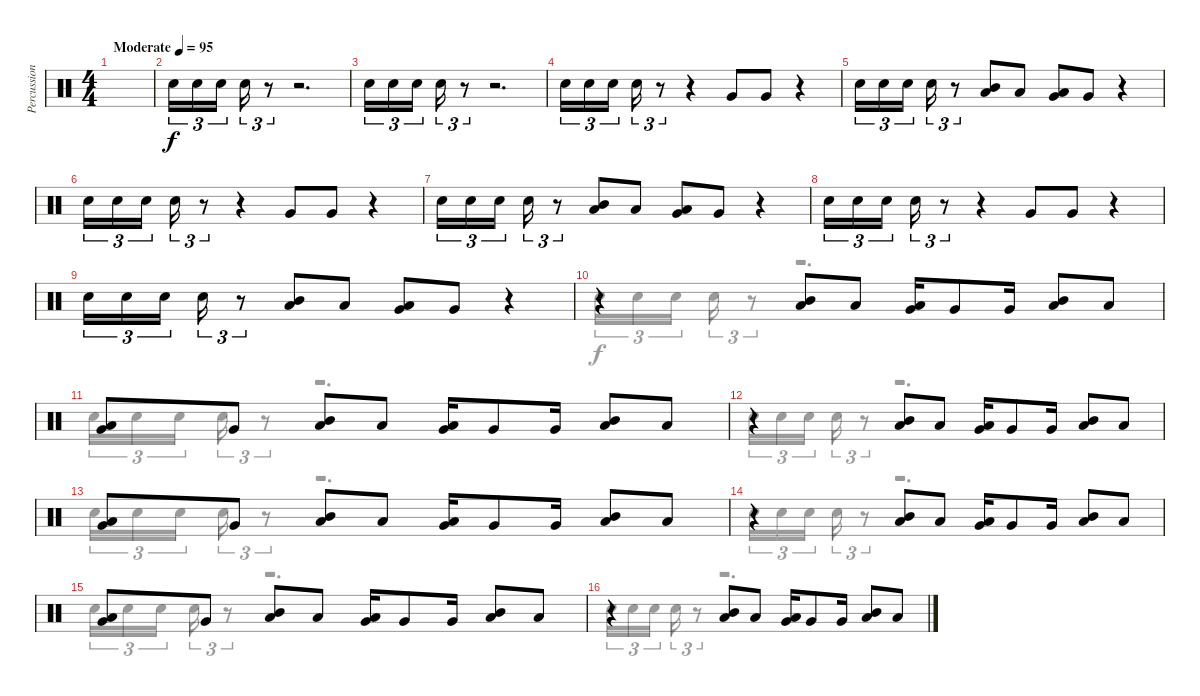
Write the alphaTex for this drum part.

\track ("Percussion" "Percussion") {instrument percussion}
\staff {score}
\articulation defaults
\voice
\ts (4 4)
\tempo (95 "Moderate")
\clef neutral
\ks c
|
"Snare (hit) 2".16{tu (3 2)} "Snare (hit) 2".16{tu (3 2)} "Snare (hit) 2".16{tu (3 2) beam splitsecondary} "Snare (hit) 2".16{tu (3 2)} r.8{tu (3 2)} r.2{d} |
"Snare (hit) 2".16{tu (3 2)} "Snare (hit) 2".16{tu (3 2)} "Snare (hit) 2".16{tu (3 2) beam splitsecondary} "Snare (hit) 2".16{tu (3 2)} r.8{tu (3 2)} r.2{d} |
"Snare (hit) 2".16{tu (3 2)} "Snare (hit) 2".16{tu (3 2)} "Snare (hit) 2".16{tu (3 2) beam splitsecondary} "Snare (hit) 2".16{tu (3 2)} r.8{tu (3 2)} r.4 "Very Low Tom (hit)".8 "Very Low Tom (hit)".8 r.4 |
"Snare (hit) 2".16{tu (3 2)} "Snare (hit) 2".16{tu (3 2)} "Snare (hit) 2".16{tu (3 2) beam splitsecondary} "Snare (hit) 2".16{tu (3 2)} r.8{tu (3 2)} ("Mid Tom (hit)" "Low Tom (hit)").8 "Low Tom (hit)".8 ("Low Tom (hit)" "Very Low Tom (hit)").8 "Very Low Tom (hit)".8 r.4 |
"Snare (hit) 2".16{tu (3 2)} "Snare (hit) 2".16{tu (3 2)} "Snare (hit) 2".16{tu (3 2) beam splitsecondary} "Snare (hit) 2".16{tu (3 2)} r.8{tu (3 2)} r.4 "Very Low Tom (hit)".8 "Very Low Tom (hit)".8 r.4 |
"Snare (hit) 2".16{tu (3 2)} "Snare (hit) 2".16{tu (3 2)} "Snare (hit) 2".16{tu (3 2) beam splitsecondary} "Snare (hit) 2".16{tu (3 2)} r.8{tu (3 2)} ("Mid Tom (hit)" "Low Tom (hit)").8 "Low Tom (hit)".8 ("Low Tom (hit)" "Very Low Tom (hit)").8 "Very Low Tom (hit)".8 r.4 |
"Snare (hit) 2".16{tu (3 2)} "Snare (hit) 2".16{tu (3 2)} "Snare (hit) 2".16{tu (3 2) beam splitsecondary} "Snare (hit) 2".16{tu (3 2)} r.8{tu (3 2)} r.4 "Very Low Tom (hit)".8 "Very Low Tom (hit)".8 r.4 |
"Snare (hit) 2".16{tu (3 2)} "Snare (hit) 2".16{tu (3 2)} "Snare (hit) 2".16{tu (3 2) beam splitsecondary} "Snare (hit) 2".16{tu (3 2)} r.8{tu (3 2)} ("Mid Tom (hit)" "Low Tom (hit)").8 "Low Tom (hit)".8 ("Low Tom (hit)" "Very Low Tom (hit)").8 "Very Low Tom (hit)".8 r.4 |
r.4 ("Mid Tom (hit)" "Low Tom (hit)").8 "Low Tom (hit)".8 ("Low Tom (hit)" "Very Low Tom (hit)").16 "Very Low Tom (hit)".8 "Very Low Tom (hit)".16 ("Mid Tom (hit)" "Low Tom (hit)").8 "Low Tom (hit)".8 |
("Low Tom (hit)" "Very Low Tom (hit)").8 "Very Low Tom (hit)".8 ("Mid Tom (hit)" "Low Tom (hit)").8 "Low Tom (hit)".8 ("Low Tom (hit)" "Very Low Tom (hit)").16 "Very Low Tom (hit)".8 "Very Low Tom (hit)".16 ("Mid Tom (hit)" "Low Tom (hit)").8 "Low Tom (hit)".8 |
r.4 ("Mid Tom (hit)" "Low Tom (hit)").8 "Low Tom (hit)".8 ("Low Tom (hit)" "Very Low Tom (hit)").16 "Very Low Tom (hit)".8 "Very Low Tom (hit)".16 ("Mid Tom (hit)" "Low Tom (hit)").8 "Low Tom (hit)".8 |
("Low Tom (hit)" "Very Low Tom (hit)").8 "Very Low Tom (hit)".8 ("Mid Tom (hit)" "Low Tom (hit)").8 "Low Tom (hit)".8 ("Low Tom (hit)" "Very Low Tom (hit)").16 "Very Low Tom (hit)".8 "Very Low Tom (hit)".16 ("Mid Tom (hit)" "Low Tom (hit)").8 "Low Tom (hit)".8 |
r.4 ("Mid Tom (hit)" "Low Tom (hit)").8 "Low Tom (hit)".8 ("Low Tom (hit)" "Very Low Tom (hit)").16 "Very Low Tom (hit)".8 "Very Low Tom (hit)".16 ("Mid Tom (hit)" "Low Tom (hit)").8 "Low Tom (hit)".8 |
("Low Tom (hit)" "Very Low Tom (hit)").8 "Very Low Tom (hit)".8 ("Mid Tom (hit)" "Low Tom (hit)").8 "Low Tom (hit)".8 ("Low Tom (hit)" "Very Low Tom (hit)").16 "Very Low Tom (hit)".8 "Very Low Tom (hit)".16 ("Mid Tom (hit)" "Low Tom (hit)").8 "Low Tom (hit)".8 |
r.4 ("Mid Tom (hit)" "Low Tom (hit)").8 "Low Tom (hit)".8 ("Low Tom (hit)" "Very Low Tom (hit)").16 "Very Low Tom (hit)".8 "Very Low Tom (hit)".16 ("Mid Tom (hit)" "Low Tom (hit)").8 "Low Tom (hit)".8
\voice
\clef neutral
\ottava regular
\simile none
\ks c
|
|
|
|
|
|
|
|
|
"Snare (hit) 2".16{tu (3 2)} "Snare (hit) 2".16{tu (3 2)} "Snare (hit) 2".16{tu (3 2) beam splitsecondary} "Snare (hit) 2".16{tu (3 2)} r.8{tu (3 2)} r.2{d} |
"Snare (hit) 2".16{tu (3 2)} "Snare (hit) 2".16{tu (3 2)} "Snare (hit) 2".16{tu (3 2) beam splitsecondary} "Snare (hit) 2".16{tu (3 2)} r.8{tu (3 2)} r.2{d} |
"Snare (hit) 2".16{tu (3 2)} "Snare (hit) 2".16{tu (3 2)} "Snare (hit) 2".16{tu (3 2) beam splitsecondary} "Snare (hit) 2".16{tu (3 2)} r.8{tu (3 2)} r.2{d} |
"Snare (hit) 2".16{tu (3 2)} "Snare (hit) 2".16{tu (3 2)} "Snare (hit) 2".16{tu (3 2) beam splitsecondary} "Snare (hit) 2".16{tu (3 2)} r.8{tu (3 2)} r.2{d} |
"Snare (hit) 2".16{tu (3 2)} "Snare (hit) 2".16{tu (3 2)} "Snare (hit) 2".16{tu (3 2) beam splitsecondary} "Snare (hit) 2".16{tu (3 2)} r.8{tu (3 2)} r.2{d} |
"Snare (hit) 2".16{tu (3 2)} "Snare (hit) 2".16{tu (3 2)} "Snare (hit) 2".16{tu (3 2) beam splitsecondary} "Snare (hit) 2".16{tu (3 2)} r.8{tu (3 2)} r.2{d} |
"Snare (hit) 2".16{tu (3 2)} "Snare (hit) 2".16{tu (3 2)} "Snare (hit) 2".16{tu (3 2) beam splitsecondary} "Snare (hit) 2".16{tu (3 2)} r.8{tu (3 2)} r.2{d}
